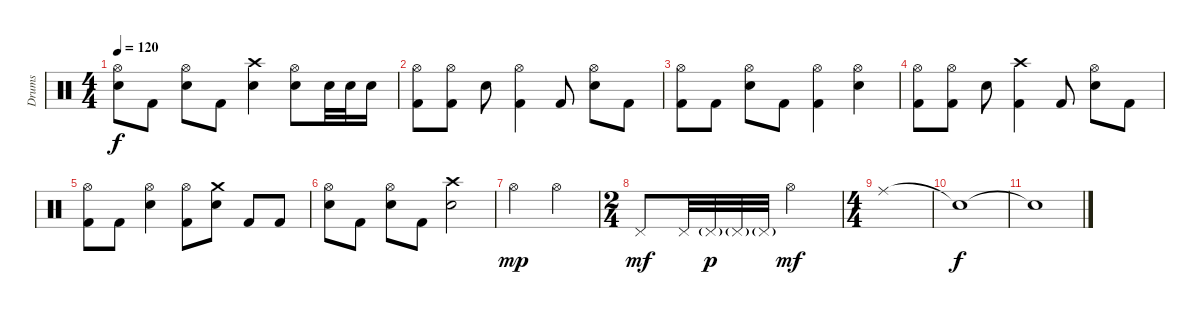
\track ("Drums" "Drums") {instrument percussion}
\staff {score}
\articulation defaults
\ts (4 4)
\tempo 120
\clef neutral
\ks c
("Hi-Hat (open)" "Snare (hit) 2").8{dy f} "Kick (hit) 2".8 ("Hi-Hat (open)" "Snare (hit) 2").8 "Kick (hit) 2".8 ("Crash high (hit)" "Snare (hit) 2").4 ("Hi-Hat (open)" "Snare (hit) 2").8 "Snare (hit) 2".32 "Snare (hit) 2".32 "Snare (hit) 2".16 |
("Hi-Hat (open)" "Kick (hit) 2").8 ("Hi-Hat (open)" "Kick (hit) 2").8 "Snare (hit) 2".8 ("Hi-Hat (open)" "Kick (hit) 2").4 "Kick (hit) 2".8 ("Hi-Hat (open)" "Snare (hit) 2").8 "Kick (hit) 2".8 |
("Hi-Hat (open)" "Kick (hit) 2").8 "Kick (hit) 2".8 ("Hi-Hat (open)" "Snare (hit) 2").8 "Kick (hit) 2".8 ("Hi-Hat (open)" "Kick (hit) 2").4 ("Hi-Hat (open)" "Snare (hit) 2").4 |
("Hi-Hat (open)" "Kick (hit) 2").8 ("Hi-Hat (open)" "Kick (hit) 2").8 "Snare (hit) 2".8 ("Crash high (hit)" "Kick (hit) 2").4 "Kick (hit) 2".8 ("Hi-Hat (open)" "Snare (hit) 2").8 "Kick (hit) 2".8 |
("Hi-Hat (open)" "Kick (hit) 2").8 "Kick (hit) 2".8 ("Hi-Hat (open)" "Snare (hit) 2").4 ("Hi-Hat (open)" "Kick (hit) 2").8 ("Crash medium (hit)" "Snare (hit) 2").8 "Kick (hit) 2".8 "Kick (hit) 2".8 |
("Hi-Hat (open)" "Snare (hit) 2").8 "Kick (hit) 2".8 ("Hi-Hat (open)" "Snare (hit) 2").8 "Kick (hit) 2".8 ("Crash high (hit)" "Snare (hit) 2").2 |
"Hi-Hat (open)".2{dy mp} "Hi-Hat (open)".2 |
\ts (2 4)
"Pedal Hi-Hat (hit)".8{dy mf} "Pedal Hi-Hat (hit)".32 "Pedal Hi-Hat (hit)"{g}.32{dy p} "Pedal Hi-Hat (hit)"{g}.32 "Pedal Hi-Hat (hit)"{g}.32 "Hi-Hat (open)".4{dy mf} |
\ts (4 4)
"Ride (middle)".1 |
"Snare (hit)"{t}.1{dy f} |
"Snare (hit)"{t}.1
